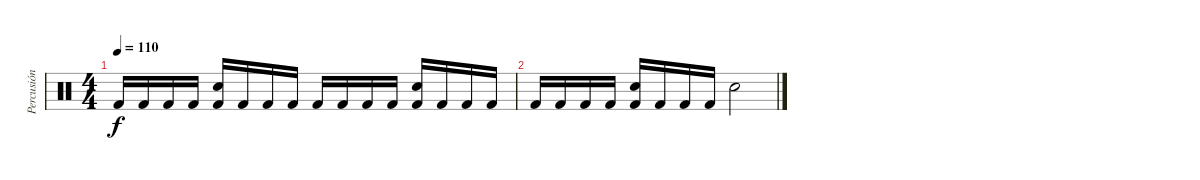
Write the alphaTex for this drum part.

\track ("Percusión" "Percusión") {instrument percussion}
\staff {score}
\articulation defaults
\ts (4 4)
\tempo 110
\clef neutral
\ks c "Kick (hit) 2".16{dy f} "Kick (hit) 2".16 "Kick (hit) 2".16 "Kick (hit) 2".16
("Electric Snare (hit)" "Kick (hit) 2").16 "Kick (hit) 2".16 "Kick (hit) 2".16 "Kick (hit) 2".16 "Kick (hit) 2".16 "Kick (hit) 2".16 "Kick (hit) 2".16 "Kick (hit) 2".16 ("Electric Snare (hit)" "Kick (hit) 2").16 "Kick (hit) 2".16 "Kick (hit) 2".16 "Kick (hit) 2".16 |
"Kick (hit) 2".16 "Kick (hit) 2".16 "Kick (hit) 2".16 "Kick (hit) 2".16 ("Electric Snare (hit)" "Kick (hit) 2").16 "Kick (hit) 2".16 "Kick (hit) 2".16 "Kick (hit) 2".16 "Electric Snare (hit)".2
